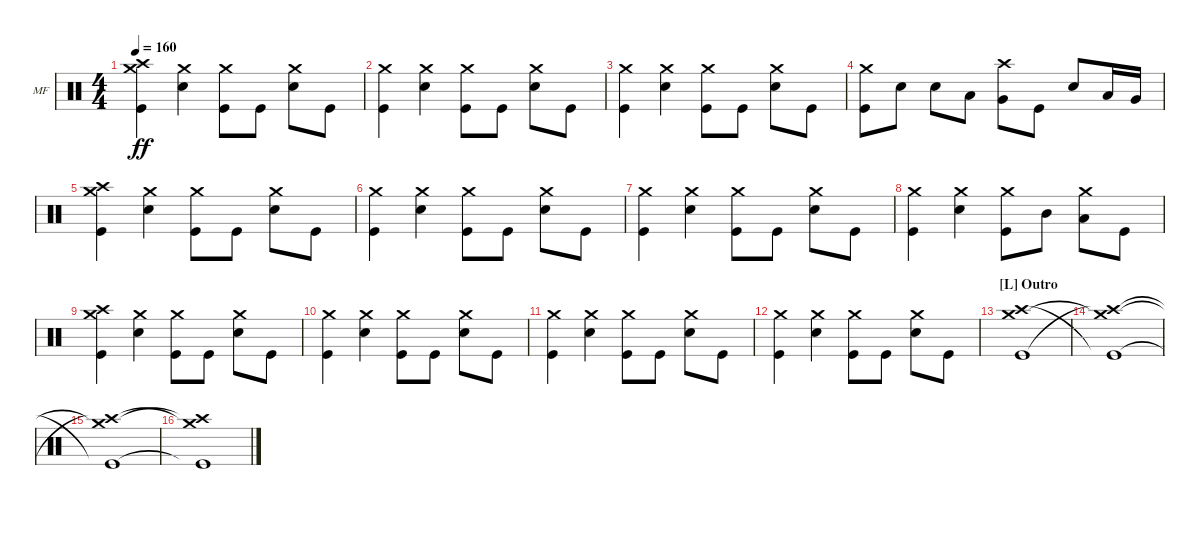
\defaultSystemsLayout 4
\bracketExtendMode groupsimilarinstruments
\firstSystemTrackNameOrientation horizontal
\otherSystemsTrackNameOrientation horizontal
\track ("Mike Felumlee - Drums" "MF") {instrument percussion}
\staff {score}
\articulation defaults
\ts (4 4)
\tempo 160
\clef neutral
\ks c
("Crash high (hit)" "Crash medium (hit)" "Kick (hit)").4{dy ff} ("Snare (hit) 2" "Crash medium (hit)").4 ("Kick (hit)" "Crash medium (hit)").8 "Kick (hit)".8 ("Snare (hit) 2" "Crash medium (hit)").8 "Kick (hit)".8 |
("Kick (hit)" "Crash medium (hit)").4 ("Snare (hit) 2" "Crash medium (hit)").4 ("Kick (hit)" "Crash medium (hit)").8 "Kick (hit)".8 ("Snare (hit) 2" "Crash medium (hit)").8 "Kick (hit)".8 |
("Kick (hit)" "Crash medium (hit)").4 ("Snare (hit) 2" "Crash medium (hit)").4 ("Kick (hit)" "Crash medium (hit)").8 "Kick (hit)".8 ("Snare (hit) 2" "Crash medium (hit)").8 "Kick (hit)".8 |
("Kick (hit)" "Crash medium (hit)").8 "Snare (hit) 2".8 "Snare (hit) 2".8 "Low Tom (hit)".8 ("Very Low Tom (hit)" "Crash high (hit)").8 "Kick (hit)".8 "Snare (hit) 2".8 "Low Tom (hit)".16 "Very Low Tom (hit)".16 |
("Crash high (hit)" "Crash medium (hit)" "Kick (hit)").4 ("Snare (hit) 2" "Crash medium (hit)").4 ("Kick (hit)" "Crash medium (hit)").8 "Kick (hit)".8 ("Snare (hit) 2" "Crash medium (hit)").8 "Kick (hit)".8 |
("Kick (hit)" "Crash medium (hit)").4 ("Snare (hit) 2" "Crash medium (hit)").4 ("Kick (hit)" "Crash medium (hit)").8 "Kick (hit)".8 ("Snare (hit) 2" "Crash medium (hit)").8 "Kick (hit)".8 |
("Kick (hit)" "Crash medium (hit)").4 ("Snare (hit) 2" "Crash medium (hit)").4 ("Kick (hit)" "Crash medium (hit)").8 "Kick (hit)".8 ("Snare (hit) 2" "Crash medium (hit)").8 "Kick (hit)".8 |
("Kick (hit)" "Crash medium (hit)").4 ("Snare (hit) 2" "Crash medium (hit)").4 ("Kick (hit)" "Crash medium (hit)").8 "Mid Tom (hit)".8 ("Crash medium (hit)" "Low Tom (hit)").8 "Kick (hit)".8 |
("Crash high (hit)" "Crash medium (hit)" "Kick (hit)").4 ("Snare (hit) 2" "Crash medium (hit)").4 ("Kick (hit)" "Crash medium (hit)").8 "Kick (hit)".8 ("Snare (hit) 2" "Crash medium (hit)").8 "Kick (hit)".8 |
("Kick (hit)" "Crash medium (hit)").4 ("Snare (hit) 2" "Crash medium (hit)").4 ("Kick (hit)" "Crash medium (hit)").8 "Kick (hit)".8 ("Snare (hit) 2" "Crash medium (hit)").8 "Kick (hit)".8 |
("Kick (hit)" "Crash medium (hit)").4 ("Snare (hit) 2" "Crash medium (hit)").4 ("Kick (hit)" "Crash medium (hit)").8 "Kick (hit)".8 ("Snare (hit) 2" "Crash medium (hit)").8 "Kick (hit)".8 |
("Kick (hit)" "Crash medium (hit)").4 ("Snare (hit) 2" "Crash medium (hit)").4 ("Kick (hit)" "Crash medium (hit)").8 "Kick (hit)".8 ("Snare (hit) 2" "Crash medium (hit)").8 "Kick (hit)".8 |
\section ("L" "Outro")
("Crash high (hit)" "Crash medium (hit)" "Kick (hit)").1 |
("Kick (hit)"{t} "Crash medium (hit)"{t} "Crash high (hit)"{t}).1 |
("Crash high (hit)"{t} "Crash medium (hit)"{t} "Kick (hit)"{t}).1 |
("Crash medium (hit)"{t} "Crash high (hit)"{t} "Kick (hit)"{t}).1
